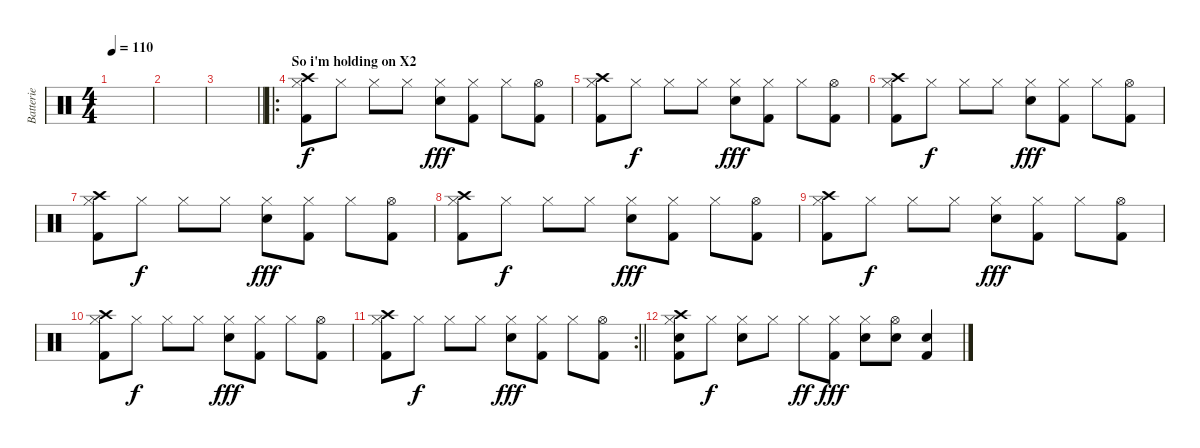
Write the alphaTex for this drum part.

\track ("Batterie" "Batterie") {instrument percussion}
\staff {score}
\articulation defaults
\ts (4 4)
\tempo 110
\clef neutral
\ks c
|
|
\barLineRight lightlight
|
\ro
\section ("" "So i'm holding on X2 ")
("Hi-Hat (closed)" "Crash high (hit)" "Kick (hit) 2").8 "Hi-Hat (closed)".8{dy f} "Hi-Hat (closed)".8 "Hi-Hat (closed)".8 ("Hi-Hat (closed)" "Electric Snare (hit)").8{dy fff} ("Hi-Hat (closed)" "Kick (hit) 2").8 "Hi-Hat (closed)".8 ("Hi-Hat (open)" "Kick (hit) 2").8 |
("Hi-Hat (closed)" "Crash high (hit)" "Kick (hit) 2").8 "Hi-Hat (closed)".8{dy f} "Hi-Hat (closed)".8 "Hi-Hat (closed)".8 ("Hi-Hat (closed)" "Electric Snare (hit)").8{dy fff} ("Hi-Hat (closed)" "Kick (hit) 2").8 "Hi-Hat (closed)".8 ("Hi-Hat (open)" "Kick (hit) 2").8 |
("Hi-Hat (closed)" "Crash high (hit)" "Kick (hit) 2").8 "Hi-Hat (closed)".8{dy f} "Hi-Hat (closed)".8 "Hi-Hat (closed)".8 ("Hi-Hat (closed)" "Electric Snare (hit)").8{dy fff} ("Hi-Hat (closed)" "Kick (hit) 2").8 "Hi-Hat (closed)".8 ("Hi-Hat (open)" "Kick (hit) 2").8 |
("Hi-Hat (closed)" "Crash high (hit)" "Kick (hit) 2").8 "Hi-Hat (closed)".8{dy f} "Hi-Hat (closed)".8 "Hi-Hat (closed)".8 ("Hi-Hat (closed)" "Electric Snare (hit)").8{dy fff} ("Hi-Hat (closed)" "Kick (hit) 2").8 "Hi-Hat (closed)".8 ("Hi-Hat (open)" "Kick (hit) 2").8 |
("Hi-Hat (closed)" "Crash high (hit)" "Kick (hit) 2").8 "Hi-Hat (closed)".8{dy f} "Hi-Hat (closed)".8 "Hi-Hat (closed)".8 ("Hi-Hat (closed)" "Electric Snare (hit)").8{dy fff} ("Hi-Hat (closed)" "Kick (hit) 2").8 "Hi-Hat (closed)".8 ("Hi-Hat (open)" "Kick (hit) 2").8 |
("Hi-Hat (closed)" "Crash high (hit)" "Kick (hit) 2").8 "Hi-Hat (closed)".8{dy f} "Hi-Hat (closed)".8 "Hi-Hat (closed)".8 ("Hi-Hat (closed)" "Electric Snare (hit)").8{dy fff} ("Hi-Hat (closed)" "Kick (hit) 2").8 "Hi-Hat (closed)".8 ("Hi-Hat (open)" "Kick (hit) 2").8 |
("Hi-Hat (closed)" "Crash high (hit)" "Kick (hit) 2").8 "Hi-Hat (closed)".8{dy f} "Hi-Hat (closed)".8 "Hi-Hat (closed)".8 ("Hi-Hat (closed)" "Electric Snare (hit)").8{dy fff} ("Hi-Hat (closed)" "Kick (hit) 2").8 "Hi-Hat (closed)".8 ("Hi-Hat (open)" "Kick (hit) 2").8 |
\rc 2
\barLineRight lightlight
("Hi-Hat (closed)" "Crash high (hit)" "Kick (hit) 2").8 "Hi-Hat (closed)".8{dy f} "Hi-Hat (closed)".8 "Hi-Hat (closed)".8 ("Hi-Hat (closed)" "Electric Snare (hit)").8{dy fff} ("Hi-Hat (closed)" "Kick (hit) 2").8 "Hi-Hat (closed)".8 ("Hi-Hat (open)" "Kick (hit) 2").8 |
("Hi-Hat (closed)" "Crash high (hit)" "Electric Snare (hit)" "Kick (hit) 2").8 "Hi-Hat (closed)".8{dy f} ("Hi-Hat (closed)" "Electric Snare (hit)").8 "Hi-Hat (closed)".8 "Hi-Hat (closed)".8{dy ff} ("Hi-Hat (closed)" "Kick (hit) 2").8{dy fff} ("Hi-Hat (closed)" "Electric Snare (hit)").8 ("Hi-Hat (open)" "Electric Snare (hit)").8 ("Electric Snare (hit)" "Kick (hit) 2").4
